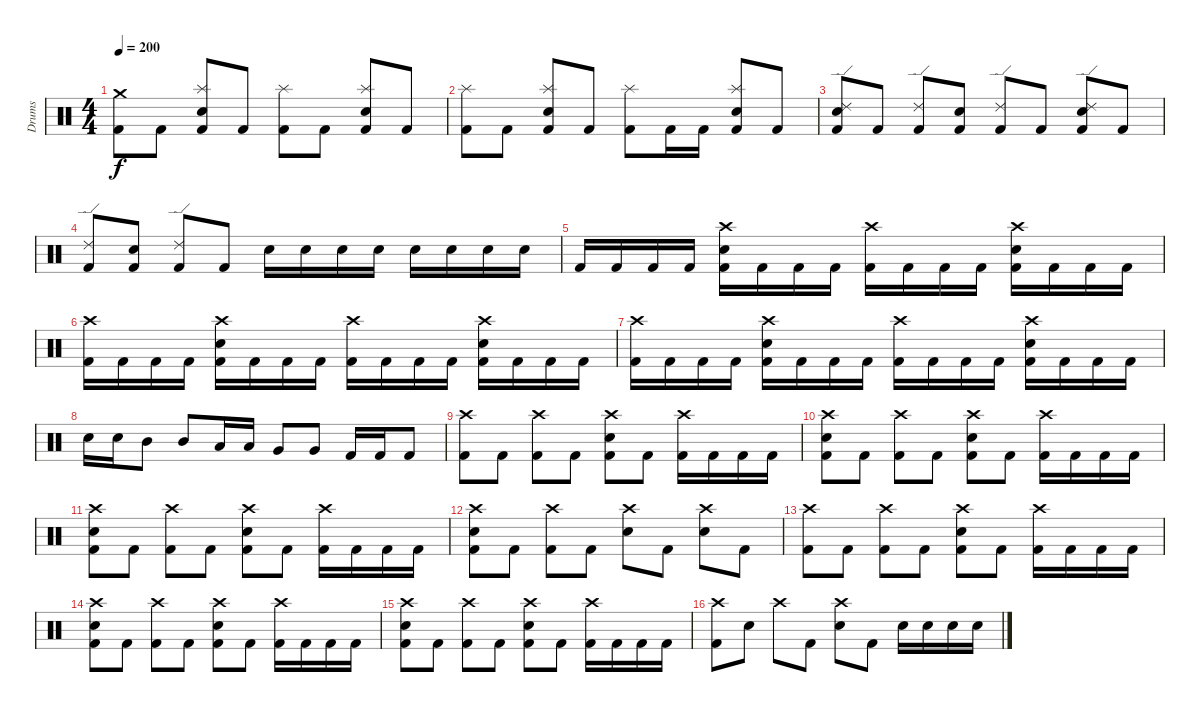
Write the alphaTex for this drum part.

\track ("Drums" "Drums") {instrument percussion}
\staff {score}
\articulation defaults
\ts (4 4)
\tempo 200
\clef neutral
\ks c
("Crash medium (hit)" "Kick (hit) 2").8{dy f} "Kick (hit) 2".8 ("Splash (hit)" "Snare (hit) 2" "Kick (hit) 2").8 "Kick (hit) 2".8 ("Splash (hit)" "Kick (hit) 2").8 "Kick (hit) 2".8 ("Splash (hit)" "Snare (hit) 2" "Kick (hit) 2").8 "Kick (hit) 2".8 |
("Splash (hit)" "Kick (hit) 2").8 "Kick (hit) 2".8 ("Splash (hit)" "Snare (hit) 2" "Kick (hit) 2").8 "Kick (hit) 2".8 ("Splash (hit)" "Kick (hit) 2").8 "Kick (hit) 2".16 "Kick (hit) 2".16 ("Splash (hit)" "Snare (hit) 2" "Kick (hit) 2").8 "Kick (hit) 2".8 |
("Ride (edge) 2" "Snare (hit) 2" "Kick (hit) 2").8 "Kick (hit) 2".8 ("Ride (edge) 2" "Kick (hit) 2").8 ("Snare (hit) 2" "Kick (hit) 2").8 ("Ride (edge) 2" "Kick (hit) 2").8 "Kick (hit) 2".8 ("Ride (edge) 2" "Snare (hit) 2" "Kick (hit) 2").8 "Kick (hit) 2".8 |
("Ride (edge) 2" "Kick (hit) 2").8 ("Snare (hit) 2" "Kick (hit) 2").8 ("Ride (edge) 2" "Kick (hit) 2").8 "Kick (hit) 2".8 "Snare (hit) 2".16 "Snare (hit) 2".16 "Snare (hit) 2".16 "Snare (hit) 2".16 "Snare (hit) 2".16 "Snare (hit) 2".16 "Snare (hit) 2".16 "Snare (hit) 2".16 |
"Kick (hit) 2".16 "Kick (hit) 2".16 "Kick (hit) 2".16 "Kick (hit) 2".16 ("Crash high (hit)" "Snare (hit) 2" "Kick (hit) 2").16 "Kick (hit) 2".16 "Kick (hit) 2".16 "Kick (hit) 2".16 ("Crash high (hit)" "Kick (hit) 2").16 "Kick (hit) 2".16 "Kick (hit) 2".16 "Kick (hit) 2".16 ("Crash high (hit)" "Snare (hit) 2" "Kick (hit) 2").16 "Kick (hit) 2".16 "Kick (hit) 2".16 "Kick (hit) 2".16 |
("Crash high (hit)" "Kick (hit) 2").16 "Kick (hit) 2".16 "Kick (hit) 2".16 "Kick (hit) 2".16 ("Crash high (hit)" "Snare (hit) 2" "Kick (hit) 2").16 "Kick (hit) 2".16 "Kick (hit) 2".16 "Kick (hit) 2".16 ("Crash high (hit)" "Kick (hit) 2").16 "Kick (hit) 2".16 "Kick (hit) 2".16 "Kick (hit) 2".16 ("Crash high (hit)" "Snare (hit) 2" "Kick (hit) 2").16 "Kick (hit) 2".16 "Kick (hit) 2".16 "Kick (hit) 2".16 |
("Crash high (hit)" "Kick (hit) 2").16 "Kick (hit) 2".16 "Kick (hit) 2".16 "Kick (hit) 2".16 ("Crash high (hit)" "Snare (hit) 2" "Kick (hit) 2").16 "Kick (hit) 2".16 "Kick (hit) 2".16 "Kick (hit) 2".16 ("Crash high (hit)" "Kick (hit) 2").16 "Kick (hit) 2".16 "Kick (hit) 2".16 "Kick (hit) 2".16 ("Crash high (hit)" "Snare (hit) 2" "Kick (hit) 2").16 "Kick (hit) 2".16 "Kick (hit) 2".16 "Kick (hit) 2".16 |
"Snare (hit) 2".16 "Snare (hit) 2".16 "Mid Tom (hit)".8 "Mid Tom (hit)".8 "Low Tom (hit)".16 "Low Tom (hit)".16 "Very Low Tom (hit)".8 "Very Low Tom (hit)".8 "Kick (hit) 2".16 "Kick (hit) 2".16 "Kick (hit) 2".8 |
("Crash high (hit)" "Kick (hit) 2").8 "Kick (hit) 2".8 ("Crash high (hit)" "Kick (hit) 2").8 "Kick (hit) 2".8 ("Crash high (hit)" "Snare (hit) 2" "Kick (hit) 2").8 "Kick (hit) 2".8 ("Crash high (hit)" "Kick (hit) 2").16 "Kick (hit) 2".16 "Kick (hit) 2".16 "Kick (hit) 2".16 |
("Crash high (hit)" "Snare (hit) 2" "Kick (hit) 2").8 "Kick (hit) 2".8 ("Crash high (hit)" "Kick (hit) 2").8 "Kick (hit) 2".8 ("Crash high (hit)" "Snare (hit) 2" "Kick (hit) 2").8 "Kick (hit) 2".8 ("Crash high (hit)" "Kick (hit) 2").16 "Kick (hit) 2".16 "Kick (hit) 2".16 "Kick (hit) 2".16 |
("Crash high (hit)" "Snare (hit) 2" "Kick (hit) 2").8 "Kick (hit) 2".8 ("Crash high (hit)" "Kick (hit) 2").8 "Kick (hit) 2".8 ("Crash high (hit)" "Snare (hit) 2" "Kick (hit) 2").8 "Kick (hit) 2".8 ("Crash high (hit)" "Kick (hit) 2").16 "Kick (hit) 2".16 "Kick (hit) 2".16 "Kick (hit) 2".16 |
("Crash high (hit)" "Snare (hit) 2" "Kick (hit) 2").8 "Kick (hit) 2".8 ("Crash high (hit)" "Kick (hit) 2").8 "Kick (hit) 2".8 ("Crash high (hit)" "Snare (hit) 2").8 "Kick (hit) 2".8 ("Crash high (hit)" "Snare (hit) 2").8 "Kick (hit) 2".8 |
("Crash high (hit)" "Kick (hit) 2").8 "Kick (hit) 2".8 ("Crash high (hit)" "Kick (hit) 2").8 "Kick (hit) 2".8 ("Crash high (hit)" "Snare (hit) 2" "Kick (hit) 2").8 "Kick (hit) 2".8 ("Crash high (hit)" "Kick (hit) 2").16 "Kick (hit) 2".16 "Kick (hit) 2".16 "Kick (hit) 2".16 |
("Crash high (hit)" "Snare (hit) 2" "Kick (hit) 2").8 "Kick (hit) 2".8 ("Crash high (hit)" "Kick (hit) 2").8 "Kick (hit) 2".8 ("Crash high (hit)" "Snare (hit) 2" "Kick (hit) 2").8 "Kick (hit) 2".8 ("Crash high (hit)" "Kick (hit) 2").16 "Kick (hit) 2".16 "Kick (hit) 2".16 "Kick (hit) 2".16 |
("Crash high (hit)" "Snare (hit) 2" "Kick (hit) 2").8 "Kick (hit) 2".8 ("Crash high (hit)" "Kick (hit) 2").8 "Kick (hit) 2".8 ("Crash high (hit)" "Snare (hit) 2" "Kick (hit) 2").8 "Kick (hit) 2".8 ("Crash high (hit)" "Kick (hit) 2").16 "Kick (hit) 2".16 "Kick (hit) 2".16 "Kick (hit) 2".16 |
("Crash high (hit)" "Kick (hit) 2").8 "Snare (hit) 2".8 "Crash high (hit)".8 "Kick (hit) 2".8 ("Crash high (hit)" "Snare (hit) 2").8 "Kick (hit) 2".8 "Snare (hit) 2".16 "Snare (hit) 2".16 "Snare (hit) 2".16 "Snare (hit) 2".16
